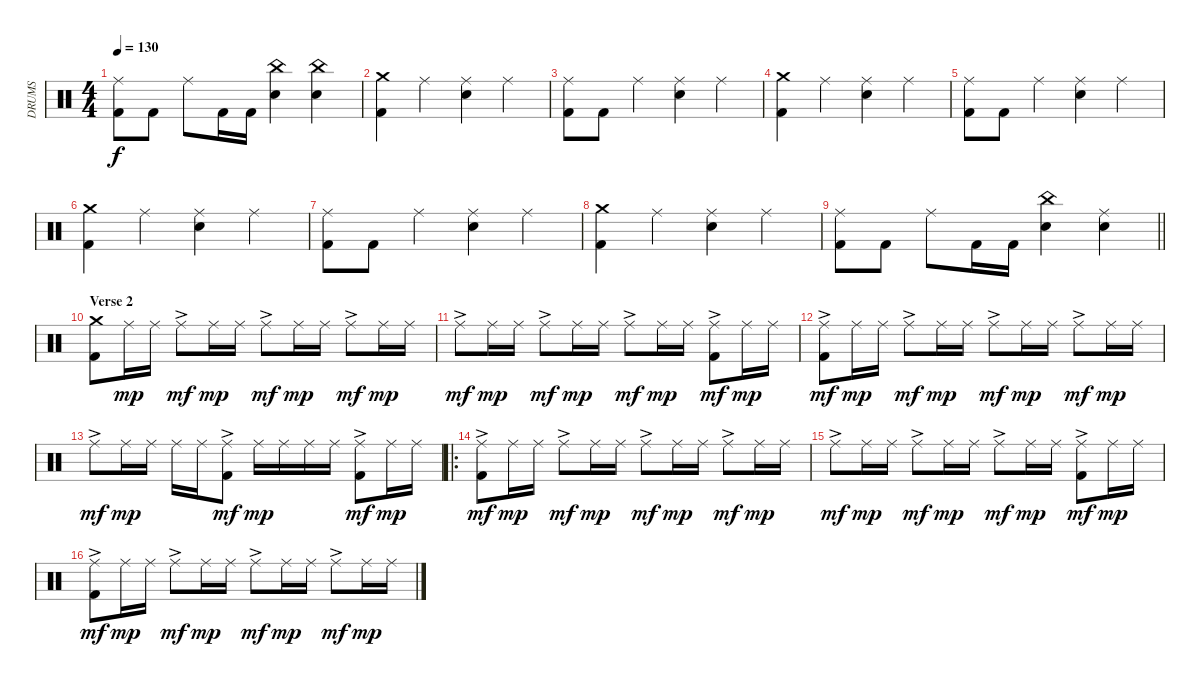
\track ("DRUMS" "DRUMS") {instrument percussion}
\staff {score}
\articulation defaults
\ts (4 4)
\tempo 130
\clef neutral
\ks c
("Ride (middle)" "Kick (hit) 2").8{dy f} "Kick (hit) 2".8 "Ride (middle)".8 "Kick (hit) 2".16 "Kick (hit) 2".16 ("China (hit)" "Snare (hit) 2").4 ("China (hit)" "Snare (hit) 2").4 |
("Crash medium (hit)" "Kick (hit) 2").4 "Ride (middle)".4 ("Ride (middle)" "Snare (hit) 2").4 "Ride (middle)".4 |
("Ride (middle)" "Kick (hit) 2").8 "Kick (hit) 2".8 "Ride (middle)".4 ("Ride (middle)" "Snare (hit) 2").4 "Ride (middle)".4 |
("Crash medium (hit)" "Kick (hit) 2").4 "Ride (middle)".4 ("Ride (middle)" "Snare (hit) 2").4 "Ride (middle)".4 |
("Ride (middle)" "Kick (hit) 2").8 "Kick (hit) 2".8 "Ride (middle)".4 ("Ride (middle)" "Snare (hit) 2").4 "Ride (middle)".4 |
("Crash medium (hit)" "Kick (hit) 2").4 "Ride (middle)".4 ("Ride (middle)" "Snare (hit) 2").4 "Ride (middle)".4 |
("Ride (middle)" "Kick (hit) 2").8 "Kick (hit) 2".8 "Ride (middle)".4 ("Ride (middle)" "Snare (hit) 2").4 "Ride (middle)".4 |
("Crash medium (hit)" "Kick (hit) 2").4 "Ride (middle)".4 ("Ride (middle)" "Snare (hit) 2").4 "Ride (middle)".4 |
\barLineRight lightlight
("Ride (middle)" "Kick (hit) 2").8 "Kick (hit) 2".8 "Ride (middle)".8 "Kick (hit) 2".16 "Kick (hit) 2".16 ("China (hit)" "Snare (hit) 2").4 ("Ride (middle)" "Snare (hit) 2").4 |
\section ("" "Verse 2")
("Crash medium (hit)" "Kick (hit) 2").8 "Ride (middle)".16{dy mp} "Ride (middle)".16 "Ride (middle)"{ac}.8{dy mf} "Ride (middle)".16{dy mp} "Ride (middle)".16 "Ride (middle)"{ac}.8{dy mf} "Ride (middle)".16{dy mp} "Ride (middle)".16 "Ride (middle)"{ac}.8{dy mf} "Ride (middle)".16{dy mp} "Ride (middle)".16 |
"Ride (middle)"{ac}.8{dy mf} "Ride (middle)".16{dy mp} "Ride (middle)".16 "Ride (middle)"{ac}.8{dy mf} "Ride (middle)".16{dy mp} "Ride (middle)".16 "Ride (middle)"{ac}.8{dy mf} "Ride (middle)".16{dy mp} "Ride (middle)".16 ("Ride (middle)"{ac} "Kick (hit) 2").8{dy mf} "Ride (middle)".16{dy mp} "Ride (middle)".16 |
("Ride (middle)"{ac} "Kick (hit) 2").8{dy mf} "Ride (middle)".16{dy mp} "Ride (middle)".16 "Ride (middle)"{ac}.8{dy mf} "Ride (middle)".16{dy mp} "Ride (middle)".16 "Ride (middle)"{ac}.8{dy mf} "Ride (middle)".16{dy mp} "Ride (middle)".16 "Ride (middle)"{ac}.8{dy mf} "Ride (middle)".16{dy mp} "Ride (middle)".16 |
"Ride (middle)"{ac}.8{dy mf} "Ride (middle)".16{dy mp} "Ride (middle)".16 "Ride (middle)".16 "Ride (middle)".16 ("Ride (middle)"{ac} "Kick (hit) 2").8{dy mf} "Ride (middle)".16{dy mp} "Ride (middle)".16 "Ride (middle)".16 "Ride (middle)".16 ("Ride (middle)"{ac} "Kick (hit) 2").8{dy mf} "Ride (middle)".16{dy mp} "Ride (middle)".16 |
\ro
("Ride (middle)"{ac} "Kick (hit) 2").8{dy mf} "Ride (middle)".16{dy mp} "Ride (middle)".16 "Ride (middle)"{ac}.8{dy mf} "Ride (middle)".16{dy mp} "Ride (middle)".16 "Ride (middle)"{ac}.8{dy mf} "Ride (middle)".16{dy mp} "Ride (middle)".16 "Ride (middle)"{ac}.8{dy mf} "Ride (middle)".16{dy mp} "Ride (middle)".16 |
"Ride (middle)"{ac}.8{dy mf} "Ride (middle)".16{dy mp} "Ride (middle)".16 "Ride (middle)"{ac}.8{dy mf} "Ride (middle)".16{dy mp} "Ride (middle)".16 "Ride (middle)"{ac}.8{dy mf} "Ride (middle)".16{dy mp} "Ride (middle)".16 ("Ride (middle)"{ac} "Kick (hit) 2").8{dy mf} "Ride (middle)".16{dy mp} "Ride (middle)".16 |
("Ride (middle)"{ac} "Kick (hit) 2").8{dy mf} "Ride (middle)".16{dy mp} "Ride (middle)".16 "Ride (middle)"{ac}.8{dy mf} "Ride (middle)".16{dy mp} "Ride (middle)".16 "Ride (middle)"{ac}.8{dy mf} "Ride (middle)".16{dy mp} "Ride (middle)".16 "Ride (middle)"{ac}.8{dy mf} "Ride (middle)".16{dy mp} "Ride (middle)".16
